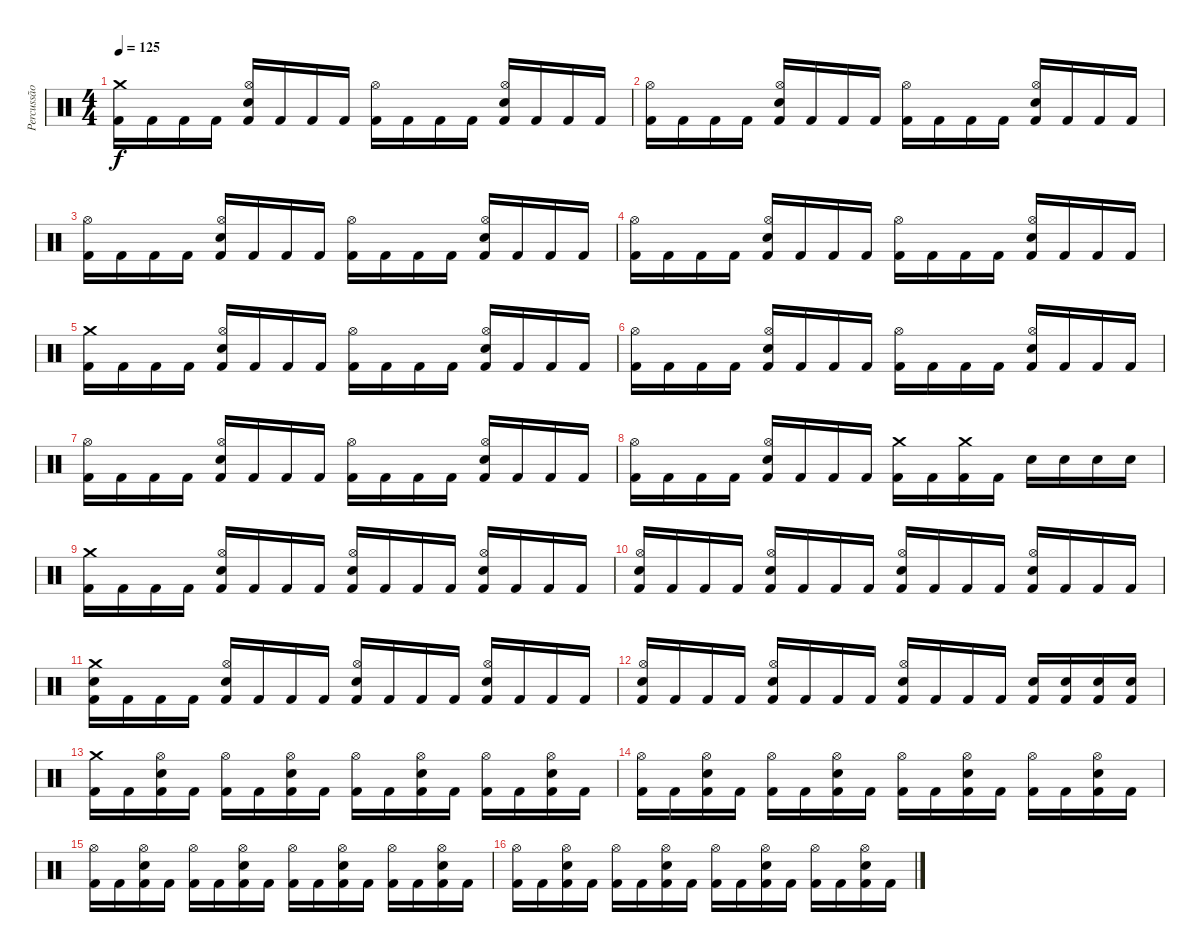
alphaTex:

\track ("Percussão" "Percussão") {instrument percussion}
\staff {score}
\articulation defaults
\ts (4 4)
\tempo 125
\clef neutral
\ks c
("Crash medium (hit)" "Kick (hit) 2").16{dy f} "Kick (hit) 2".16 "Kick (hit) 2".16 "Kick (hit) 2".16 ("Hi-Hat (open)" "Electric Snare (hit)" "Kick (hit) 2").16 "Kick (hit) 2".16 "Kick (hit) 2".16 "Kick (hit) 2".16 ("Hi-Hat (open)" "Kick (hit) 2").16 "Kick (hit) 2".16 "Kick (hit) 2".16 "Kick (hit) 2".16 ("Hi-Hat (open)" "Electric Snare (hit)" "Kick (hit) 2").16 "Kick (hit) 2".16 "Kick (hit) 2".16 "Kick (hit) 2".16 |
("Hi-Hat (open)" "Kick (hit) 2").16 "Kick (hit) 2".16 "Kick (hit) 2".16 "Kick (hit) 2".16 ("Hi-Hat (open)" "Electric Snare (hit)" "Kick (hit) 2").16 "Kick (hit) 2".16 "Kick (hit) 2".16 "Kick (hit) 2".16 ("Hi-Hat (open)" "Kick (hit) 2").16 "Kick (hit) 2".16 "Kick (hit) 2".16 "Kick (hit) 2".16 ("Hi-Hat (open)" "Electric Snare (hit)" "Kick (hit) 2").16 "Kick (hit) 2".16 "Kick (hit) 2".16 "Kick (hit) 2".16 |
("Hi-Hat (open)" "Kick (hit) 2").16 "Kick (hit) 2".16 "Kick (hit) 2".16 "Kick (hit) 2".16 ("Hi-Hat (open)" "Electric Snare (hit)" "Kick (hit) 2").16 "Kick (hit) 2".16 "Kick (hit) 2".16 "Kick (hit) 2".16 ("Hi-Hat (open)" "Kick (hit) 2").16 "Kick (hit) 2".16 "Kick (hit) 2".16 "Kick (hit) 2".16 ("Hi-Hat (open)" "Electric Snare (hit)" "Kick (hit) 2").16 "Kick (hit) 2".16 "Kick (hit) 2".16 "Kick (hit) 2".16 |
("Hi-Hat (open)" "Kick (hit) 2").16 "Kick (hit) 2".16 "Kick (hit) 2".16 "Kick (hit) 2".16 ("Hi-Hat (open)" "Electric Snare (hit)" "Kick (hit) 2").16 "Kick (hit) 2".16 "Kick (hit) 2".16 "Kick (hit) 2".16 ("Hi-Hat (open)" "Kick (hit) 2").16 "Kick (hit) 2".16 "Kick (hit) 2".16 "Kick (hit) 2".16 ("Hi-Hat (open)" "Electric Snare (hit)" "Kick (hit) 2").16 "Kick (hit) 2".16 "Kick (hit) 2".16 "Kick (hit) 2".16 |
("Crash medium (hit)" "Kick (hit) 2").16 "Kick (hit) 2".16 "Kick (hit) 2".16 "Kick (hit) 2".16 ("Hi-Hat (open)" "Electric Snare (hit)" "Kick (hit) 2").16 "Kick (hit) 2".16 "Kick (hit) 2".16 "Kick (hit) 2".16 ("Hi-Hat (open)" "Kick (hit) 2").16 "Kick (hit) 2".16 "Kick (hit) 2".16 "Kick (hit) 2".16 ("Hi-Hat (open)" "Electric Snare (hit)" "Kick (hit) 2").16 "Kick (hit) 2".16 "Kick (hit) 2".16 "Kick (hit) 2".16 |
("Hi-Hat (open)" "Kick (hit) 2").16 "Kick (hit) 2".16 "Kick (hit) 2".16 "Kick (hit) 2".16 ("Hi-Hat (open)" "Electric Snare (hit)" "Kick (hit) 2").16 "Kick (hit) 2".16 "Kick (hit) 2".16 "Kick (hit) 2".16 ("Hi-Hat (open)" "Kick (hit) 2").16 "Kick (hit) 2".16 "Kick (hit) 2".16 "Kick (hit) 2".16 ("Hi-Hat (open)" "Electric Snare (hit)" "Kick (hit) 2").16 "Kick (hit) 2".16 "Kick (hit) 2".16 "Kick (hit) 2".16 |
("Hi-Hat (open)" "Kick (hit) 2").16 "Kick (hit) 2".16 "Kick (hit) 2".16 "Kick (hit) 2".16 ("Hi-Hat (open)" "Electric Snare (hit)" "Kick (hit) 2").16 "Kick (hit) 2".16 "Kick (hit) 2".16 "Kick (hit) 2".16 ("Hi-Hat (open)" "Kick (hit) 2").16 "Kick (hit) 2".16 "Kick (hit) 2".16 "Kick (hit) 2".16 ("Hi-Hat (open)" "Electric Snare (hit)" "Kick (hit) 2").16 "Kick (hit) 2".16 "Kick (hit) 2".16 "Kick (hit) 2".16 |
("Hi-Hat (open)" "Kick (hit) 2").16 "Kick (hit) 2".16 "Kick (hit) 2".16 "Kick (hit) 2".16 ("Hi-Hat (open)" "Electric Snare (hit)" "Kick (hit) 2").16 "Kick (hit) 2".16 "Kick (hit) 2".16 "Kick (hit) 2".16 ("Crash medium (hit)" "Kick (hit) 2").16 "Kick (hit) 2".16 ("Crash medium (hit)" "Kick (hit) 2").16 "Kick (hit) 2".16 "Electric Snare (hit)".16 "Electric Snare (hit)".16 "Electric Snare (hit)".16 "Electric Snare (hit)".16 |
("Crash medium (hit)" "Kick (hit) 2").16 "Kick (hit) 2".16 "Kick (hit) 2".16 "Kick (hit) 2".16 ("Hi-Hat (open)" "Electric Snare (hit)" "Kick (hit) 2").16 "Kick (hit) 2".16 "Kick (hit) 2".16 "Kick (hit) 2".16 ("Hi-Hat (open)" "Electric Snare (hit)" "Kick (hit) 2").16 "Kick (hit) 2".16 "Kick (hit) 2".16 "Kick (hit) 2".16 ("Hi-Hat (open)" "Electric Snare (hit)" "Kick (hit) 2").16 "Kick (hit) 2".16 "Kick (hit) 2".16 "Kick (hit) 2".16 |
("Hi-Hat (open)" "Electric Snare (hit)" "Kick (hit) 2").16 "Kick (hit) 2".16 "Kick (hit) 2".16 "Kick (hit) 2".16 ("Hi-Hat (open)" "Electric Snare (hit)" "Kick (hit) 2").16 "Kick (hit) 2".16 "Kick (hit) 2".16 "Kick (hit) 2".16 ("Hi-Hat (open)" "Electric Snare (hit)" "Kick (hit) 2").16 "Kick (hit) 2".16 "Kick (hit) 2".16 "Kick (hit) 2".16 ("Hi-Hat (open)" "Electric Snare (hit)" "Kick (hit) 2").16 "Kick (hit) 2".16 "Kick (hit) 2".16 "Kick (hit) 2".16 |
("Crash medium (hit)" "Electric Snare (hit)" "Kick (hit) 2").16 "Kick (hit) 2".16 "Kick (hit) 2".16 "Kick (hit) 2".16 ("Hi-Hat (open)" "Electric Snare (hit)" "Kick (hit) 2").16 "Kick (hit) 2".16 "Kick (hit) 2".16 "Kick (hit) 2".16 ("Hi-Hat (open)" "Electric Snare (hit)" "Kick (hit) 2").16 "Kick (hit) 2".16 "Kick (hit) 2".16 "Kick (hit) 2".16 ("Hi-Hat (open)" "Electric Snare (hit)" "Kick (hit) 2").16 "Kick (hit) 2".16 "Kick (hit) 2".16 "Kick (hit) 2".16 |
("Hi-Hat (open)" "Electric Snare (hit)" "Kick (hit) 2").16 "Kick (hit) 2".16 "Kick (hit) 2".16 "Kick (hit) 2".16 ("Hi-Hat (open)" "Electric Snare (hit)" "Kick (hit) 2").16 "Kick (hit) 2".16 "Kick (hit) 2".16 "Kick (hit) 2".16 ("Hi-Hat (open)" "Electric Snare (hit)" "Kick (hit) 2").16 "Kick (hit) 2".16 "Kick (hit) 2".16 "Kick (hit) 2".16 ("Electric Snare (hit)" "Kick (hit) 2").16 ("Electric Snare (hit)" "Kick (hit) 2").16 ("Electric Snare (hit)" "Kick (hit) 2").16 ("Electric Snare (hit)" "Kick (hit) 2").16 |
("Crash medium (hit)" "Kick (hit) 2").16 "Kick (hit) 2".16 ("Hi-Hat (open)" "Electric Snare (hit)" "Kick (hit) 2").16 "Kick (hit) 2".16 ("Hi-Hat (open)" "Kick (hit) 2").16 "Kick (hit) 2".16 ("Hi-Hat (open)" "Electric Snare (hit)" "Kick (hit) 2").16 "Kick (hit) 2".16 ("Hi-Hat (open)" "Kick (hit) 2").16 "Kick (hit) 2".16 ("Hi-Hat (open)" "Electric Snare (hit)" "Kick (hit) 2").16 "Kick (hit) 2".16 ("Hi-Hat (open)" "Kick (hit) 2").16 "Kick (hit) 2".16 ("Hi-Hat (open)" "Electric Snare (hit)" "Kick (hit) 2").16 "Kick (hit) 2".16 |
("Hi-Hat (open)" "Kick (hit) 2").16 "Kick (hit) 2".16 ("Hi-Hat (open)" "Electric Snare (hit)" "Kick (hit) 2").16 "Kick (hit) 2".16 ("Hi-Hat (open)" "Kick (hit) 2").16 "Kick (hit) 2".16 ("Hi-Hat (open)" "Electric Snare (hit)" "Kick (hit) 2").16 "Kick (hit) 2".16 ("Hi-Hat (open)" "Kick (hit) 2").16 "Kick (hit) 2".16 ("Hi-Hat (open)" "Electric Snare (hit)" "Kick (hit) 2").16 "Kick (hit) 2".16 ("Hi-Hat (open)" "Kick (hit) 2").16 "Kick (hit) 2".16 ("Hi-Hat (open)" "Electric Snare (hit)" "Kick (hit) 2").16 "Kick (hit) 2".16 |
("Hi-Hat (open)" "Kick (hit) 2").16 "Kick (hit) 2".16 ("Hi-Hat (open)" "Electric Snare (hit)" "Kick (hit) 2").16 "Kick (hit) 2".16 ("Hi-Hat (open)" "Kick (hit) 2").16 "Kick (hit) 2".16 ("Hi-Hat (open)" "Electric Snare (hit)" "Kick (hit) 2").16 "Kick (hit) 2".16 ("Hi-Hat (open)" "Kick (hit) 2").16 "Kick (hit) 2".16 ("Hi-Hat (open)" "Electric Snare (hit)" "Kick (hit) 2").16 "Kick (hit) 2".16 ("Hi-Hat (open)" "Kick (hit) 2").16 "Kick (hit) 2".16 ("Hi-Hat (open)" "Electric Snare (hit)" "Kick (hit) 2").16 "Kick (hit) 2".16 |
("Hi-Hat (open)" "Kick (hit) 2").16 "Kick (hit) 2".16 ("Hi-Hat (open)" "Electric Snare (hit)" "Kick (hit) 2").16 "Kick (hit) 2".16 ("Hi-Hat (open)" "Kick (hit) 2").16 "Kick (hit) 2".16 ("Hi-Hat (open)" "Electric Snare (hit)" "Kick (hit) 2").16 "Kick (hit) 2".16 ("Hi-Hat (open)" "Kick (hit) 2").16 "Kick (hit) 2".16 ("Hi-Hat (open)" "Electric Snare (hit)" "Kick (hit) 2").16 "Kick (hit) 2".16 ("Hi-Hat (open)" "Kick (hit) 2").16 "Kick (hit) 2".16 ("Hi-Hat (open)" "Electric Snare (hit)" "Kick (hit) 2").16 "Kick (hit) 2".16
